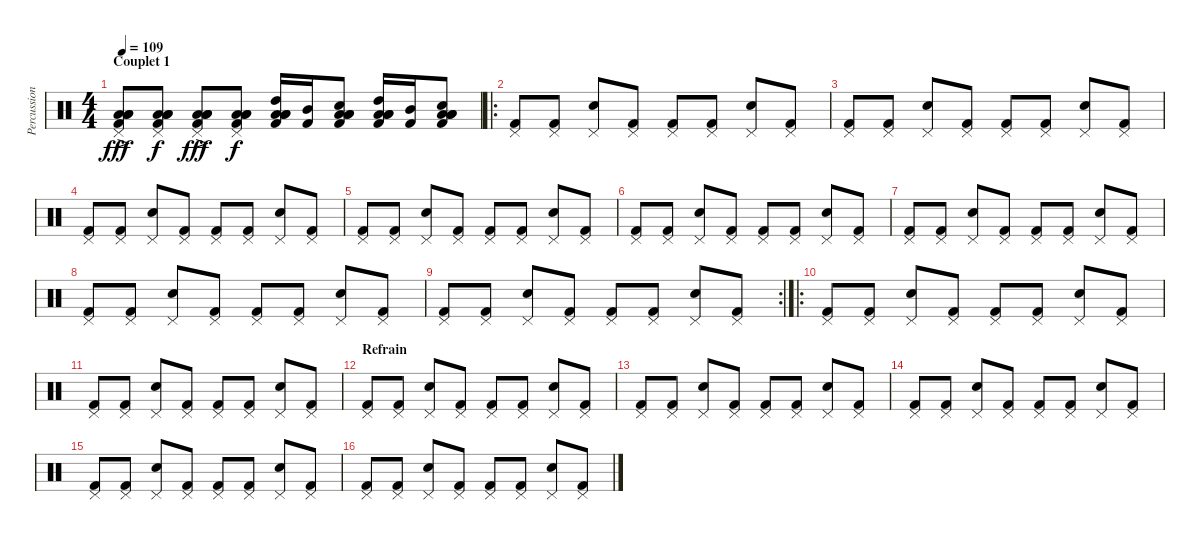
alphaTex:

\track ("Percussions" "Percussion") {instrument percussion}
\staff {score}
\articulation defaults
\ts (4 4)
\section ("" "Couplet 1")
\tempo 109
\clef neutral
\ks c
("Pedal Hi-Hat (hit)"{ac} "Kick (hit) 2" "Low Floor Tom (hit)" "Low Floor Tom (hit)" "Low Floor Tom (hit)").8{dy fff} ("Pedal Hi-Hat (hit)" "Kick (hit) 2" "Low Floor Tom (hit)" "Low Floor Tom (hit)" "Low Floor Tom (hit)").8{dy f} ("Pedal Hi-Hat (hit)"{ac} "Kick (hit) 2" "Low Floor Tom (hit)" "Low Floor Tom (hit)" "Low Floor Tom (hit)").8{dy fff} ("Pedal Hi-Hat (hit)" "Kick (hit) 2" "Low Floor Tom (hit)" "Low Floor Tom (hit)" "Low Floor Tom (hit)").8{dy f} ("High Tom (hit)" "Kick (hit) 2" "Low Floor Tom (hit)" "Low Floor Tom (hit)" "Low Floor Tom (hit)").16 ("Mid Tom (hit)" "Kick (hit) 2").16 ("Snare (hit) 2" "Kick (hit) 2" "Low Floor Tom (hit)" "Low Floor Tom (hit)" "Low Floor Tom (hit)").8 ("High Tom (hit)" "Kick (hit) 2" "Low Floor Tom (hit)" "Low Floor Tom (hit)" "Low Floor Tom (hit)").16 ("Mid Tom (hit)" "Kick (hit) 2").16 ("Snare (hit) 2" "Kick (hit) 2" "Low Floor Tom (hit)" "Low Floor Tom (hit)" "Low Floor Tom (hit)").8 |
\ro
("Pedal Hi-Hat (hit)" "Kick (hit) 2").8 ("Pedal Hi-Hat (hit)" "Kick (hit) 2").8 ("Pedal Hi-Hat (hit)" "Snare (hit) 2").8 ("Pedal Hi-Hat (hit)" "Kick (hit) 2").8 ("Pedal Hi-Hat (hit)" "Kick (hit) 2").8 ("Pedal Hi-Hat (hit)" "Kick (hit) 2").8 ("Pedal Hi-Hat (hit)" "Snare (hit) 2").8 ("Pedal Hi-Hat (hit)" "Kick (hit) 2").8 |
("Pedal Hi-Hat (hit)" "Kick (hit) 2").8 ("Pedal Hi-Hat (hit)" "Kick (hit) 2").8 ("Pedal Hi-Hat (hit)" "Snare (hit) 2").8 ("Pedal Hi-Hat (hit)" "Kick (hit) 2").8 ("Pedal Hi-Hat (hit)" "Kick (hit) 2").8 ("Pedal Hi-Hat (hit)" "Kick (hit) 2").8 ("Pedal Hi-Hat (hit)" "Snare (hit) 2").8 ("Pedal Hi-Hat (hit)" "Kick (hit) 2").8 |
("Pedal Hi-Hat (hit)" "Kick (hit) 2").8 ("Pedal Hi-Hat (hit)" "Kick (hit) 2").8 ("Pedal Hi-Hat (hit)" "Snare (hit) 2").8 ("Pedal Hi-Hat (hit)" "Kick (hit) 2").8 ("Pedal Hi-Hat (hit)" "Kick (hit) 2").8 ("Pedal Hi-Hat (hit)" "Kick (hit) 2").8 ("Pedal Hi-Hat (hit)" "Snare (hit) 2").8 ("Pedal Hi-Hat (hit)" "Kick (hit) 2").8 |
("Pedal Hi-Hat (hit)" "Kick (hit) 2").8 ("Pedal Hi-Hat (hit)" "Kick (hit) 2").8 ("Pedal Hi-Hat (hit)" "Snare (hit) 2").8 ("Pedal Hi-Hat (hit)" "Kick (hit) 2").8 ("Pedal Hi-Hat (hit)" "Kick (hit) 2").8 ("Pedal Hi-Hat (hit)" "Kick (hit) 2").8 ("Pedal Hi-Hat (hit)" "Snare (hit) 2").8 ("Pedal Hi-Hat (hit)" "Kick (hit) 2").8 |
("Pedal Hi-Hat (hit)" "Kick (hit) 2").8 ("Pedal Hi-Hat (hit)" "Kick (hit) 2").8 ("Pedal Hi-Hat (hit)" "Snare (hit) 2").8 ("Pedal Hi-Hat (hit)" "Kick (hit) 2").8 ("Pedal Hi-Hat (hit)" "Kick (hit) 2").8 ("Pedal Hi-Hat (hit)" "Kick (hit) 2").8 ("Pedal Hi-Hat (hit)" "Snare (hit) 2").8 ("Pedal Hi-Hat (hit)" "Kick (hit) 2").8 |
("Pedal Hi-Hat (hit)" "Kick (hit) 2").8 ("Pedal Hi-Hat (hit)" "Kick (hit) 2").8 ("Pedal Hi-Hat (hit)" "Snare (hit) 2").8 ("Pedal Hi-Hat (hit)" "Kick (hit) 2").8 ("Pedal Hi-Hat (hit)" "Kick (hit) 2").8 ("Pedal Hi-Hat (hit)" "Kick (hit) 2").8 ("Pedal Hi-Hat (hit)" "Snare (hit) 2").8 ("Pedal Hi-Hat (hit)" "Kick (hit) 2").8 |
("Pedal Hi-Hat (hit)" "Kick (hit) 2").8 ("Pedal Hi-Hat (hit)" "Kick (hit) 2").8 ("Pedal Hi-Hat (hit)" "Snare (hit) 2").8 ("Pedal Hi-Hat (hit)" "Kick (hit) 2").8 ("Pedal Hi-Hat (hit)" "Kick (hit) 2").8 ("Pedal Hi-Hat (hit)" "Kick (hit) 2").8 ("Pedal Hi-Hat (hit)" "Snare (hit) 2").8 ("Pedal Hi-Hat (hit)" "Kick (hit) 2").8 |
\rc 2
("Pedal Hi-Hat (hit)" "Kick (hit) 2").8 ("Pedal Hi-Hat (hit)" "Kick (hit) 2").8 ("Pedal Hi-Hat (hit)" "Snare (hit) 2").8 ("Pedal Hi-Hat (hit)" "Kick (hit) 2").8 ("Pedal Hi-Hat (hit)" "Kick (hit) 2").8 ("Pedal Hi-Hat (hit)" "Kick (hit) 2").8 ("Pedal Hi-Hat (hit)" "Snare (hit) 2").8 ("Pedal Hi-Hat (hit)" "Kick (hit) 2").8 |
\ro
("Pedal Hi-Hat (hit)" "Kick (hit) 2").8 ("Pedal Hi-Hat (hit)" "Kick (hit) 2").8 ("Pedal Hi-Hat (hit)" "Snare (hit) 2").8 ("Pedal Hi-Hat (hit)" "Kick (hit) 2").8 ("Pedal Hi-Hat (hit)" "Kick (hit) 2").8 ("Pedal Hi-Hat (hit)" "Kick (hit) 2").8 ("Pedal Hi-Hat (hit)" "Snare (hit) 2").8 ("Pedal Hi-Hat (hit)" "Kick (hit) 2").8 |
("Pedal Hi-Hat (hit)" "Kick (hit) 2").8 ("Pedal Hi-Hat (hit)" "Kick (hit) 2").8 ("Pedal Hi-Hat (hit)" "Snare (hit) 2").8 ("Pedal Hi-Hat (hit)" "Kick (hit) 2").8 ("Pedal Hi-Hat (hit)" "Kick (hit) 2").8 ("Pedal Hi-Hat (hit)" "Kick (hit) 2").8 ("Pedal Hi-Hat (hit)" "Snare (hit) 2").8 ("Pedal Hi-Hat (hit)" "Kick (hit) 2").8 |
\section ("" "Refrain")
("Pedal Hi-Hat (hit)" "Kick (hit) 2").8 ("Pedal Hi-Hat (hit)" "Kick (hit) 2").8 ("Pedal Hi-Hat (hit)" "Snare (hit) 2").8 ("Pedal Hi-Hat (hit)" "Kick (hit) 2").8 ("Pedal Hi-Hat (hit)" "Kick (hit) 2").8 ("Pedal Hi-Hat (hit)" "Kick (hit) 2").8 ("Pedal Hi-Hat (hit)" "Snare (hit) 2").8 ("Pedal Hi-Hat (hit)" "Kick (hit) 2").8 |
("Pedal Hi-Hat (hit)" "Kick (hit) 2").8 ("Pedal Hi-Hat (hit)" "Kick (hit) 2").8 ("Pedal Hi-Hat (hit)" "Snare (hit) 2").8 ("Pedal Hi-Hat (hit)" "Kick (hit) 2").8 ("Pedal Hi-Hat (hit)" "Kick (hit) 2").8 ("Pedal Hi-Hat (hit)" "Kick (hit) 2").8 ("Pedal Hi-Hat (hit)" "Snare (hit) 2").8 ("Pedal Hi-Hat (hit)" "Kick (hit) 2").8 |
("Pedal Hi-Hat (hit)" "Kick (hit) 2").8 ("Pedal Hi-Hat (hit)" "Kick (hit) 2").8 ("Pedal Hi-Hat (hit)" "Snare (hit) 2").8 ("Pedal Hi-Hat (hit)" "Kick (hit) 2").8 ("Pedal Hi-Hat (hit)" "Kick (hit) 2").8 ("Pedal Hi-Hat (hit)" "Kick (hit) 2").8 ("Pedal Hi-Hat (hit)" "Snare (hit) 2").8 ("Pedal Hi-Hat (hit)" "Kick (hit) 2").8 |
("Pedal Hi-Hat (hit)" "Kick (hit) 2").8 ("Pedal Hi-Hat (hit)" "Kick (hit) 2").8 ("Pedal Hi-Hat (hit)" "Snare (hit) 2").8 ("Pedal Hi-Hat (hit)" "Kick (hit) 2").8 ("Pedal Hi-Hat (hit)" "Kick (hit) 2").8 ("Pedal Hi-Hat (hit)" "Kick (hit) 2").8 ("Pedal Hi-Hat (hit)" "Snare (hit) 2").8 ("Pedal Hi-Hat (hit)" "Kick (hit) 2").8 |
("Pedal Hi-Hat (hit)" "Kick (hit) 2").8 ("Pedal Hi-Hat (hit)" "Kick (hit) 2").8 ("Pedal Hi-Hat (hit)" "Snare (hit) 2").8 ("Pedal Hi-Hat (hit)" "Kick (hit) 2").8 ("Pedal Hi-Hat (hit)" "Kick (hit) 2").8 ("Pedal Hi-Hat (hit)" "Kick (hit) 2").8 ("Pedal Hi-Hat (hit)" "Snare (hit) 2").8 ("Pedal Hi-Hat (hit)" "Kick (hit) 2").8
